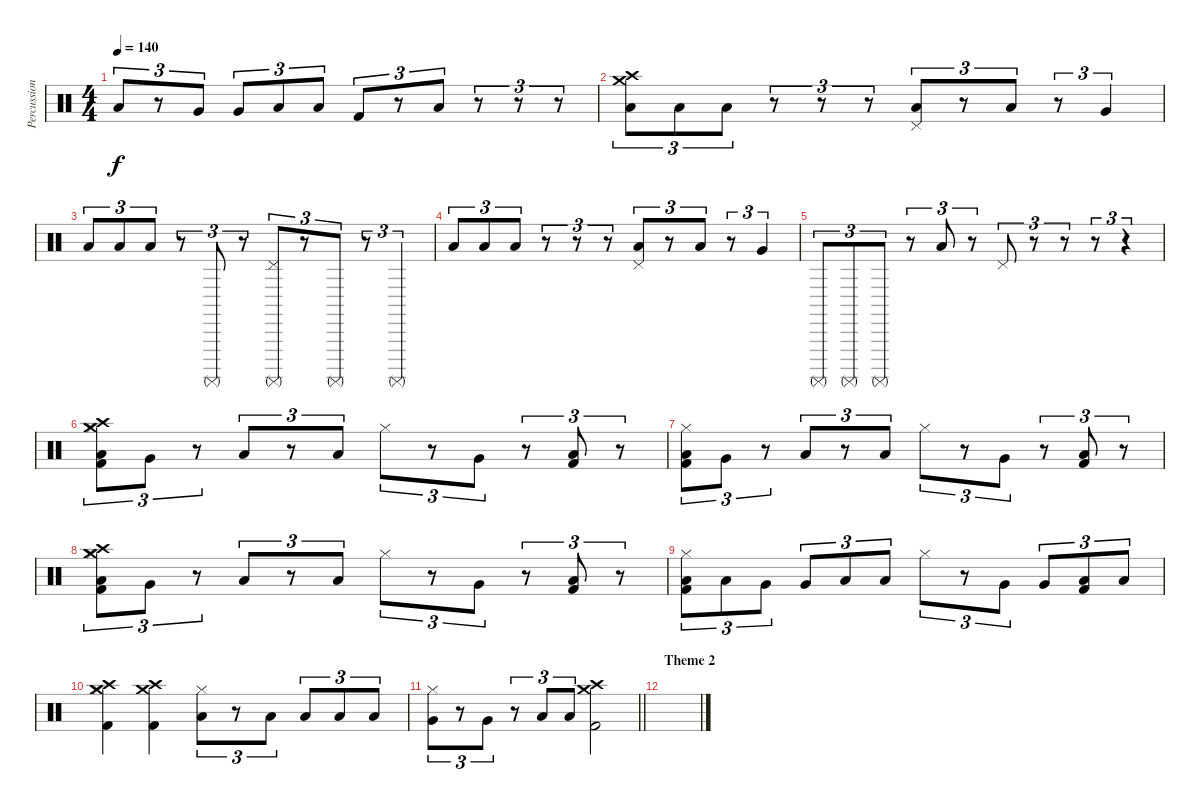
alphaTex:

\track ("Percussion" "Percussion") {instrument percussion}
\staff {score}
\articulation defaults
\ts (4 4)
\tempo 140
\clef neutral
\ks c "Low Floor Tom (hit)".8{tu (3 2) dy f}
r.8{tu (3 2)} "Very Low Tom (hit)".8{tu (3 2)} "Very Low Tom (hit)".8{tu (3 2)} "Low Floor Tom (hit)".8{tu (3 2)} "Low Floor Tom (hit)".8{tu (3 2)} "Kick (hit) 2".8{tu (3 2)} r.8{tu (3 2)} "Low Floor Tom (hit)".8{tu (3 2)} r.8{tu (3 2)} r.8{tu (3 2)} r.8{tu (3 2)} |
("Crash medium (hit)" "Crash high (hit)" "Low Tom (hit)").8{tu (3 2)} "Low Tom (hit)".8{tu (3 2)} "Low Tom (hit)".8{tu (3 2)} r.8{tu (3 2)} r.8{tu (3 2)} r.8{tu (3 2)} ("Pedal Hi-Hat (hit)" "Low Floor Tom (hit)").8{tu (3 2)} r.8{tu (3 2)} "Low Tom (hit)".8{tu (3 2)} r.8{tu (3 2)} "Very Low Tom (hit)".4{tu (3 2)} |
"Low Tom (hit)".8{tu (3 2)} "Low Tom (hit)".8{tu (3 2)} "Low Tom (hit)".8{tu (3 2)} r.8{tu (3 2)} "Surdo (mute)".8{tu (3 2)} r.8{tu (3 2)} ("Pedal Hi-Hat (hit)" "Surdo (mute)").8{tu (3 2)} r.8{tu (3 2)} "Surdo (mute)".8{tu (3 2)} r.8{tu (3 2)} "Surdo (mute)".4{tu (3 2)} |
"Low Tom (hit)".8{tu (3 2)} "Low Tom (hit)".8{tu (3 2)} "Low Tom (hit)".8{tu (3 2)} r.8{tu (3 2)} r.8{tu (3 2)} r.8{tu (3 2)} ("Pedal Hi-Hat (hit)" "Low Floor Tom (hit)").8{tu (3 2)} r.8{tu (3 2)} "Low Tom (hit)".8{tu (3 2)} r.8{tu (3 2)} "Very Low Tom (hit)".4{tu (3 2)} |
"Surdo (mute)".8{tu (3 2)} "Surdo (mute)".8{tu (3 2)} "Surdo (mute)".8{tu (3 2)} r.8{tu (3 2)} "Low Floor Tom (hit)".8{tu (3 2)} r.8{tu (3 2)} "Pedal Hi-Hat (hit)".8{tu (3 2)} r.8{tu (3 2)} r.8{tu (3 2)} r.8{tu (3 2)} r.4{tu (3 2)} |
("Hi-Hat (closed)" "Crash medium (hit)" "Crash high (hit)" "Low Tom (hit)" "Kick (hit) 2").8{tu (3 2)} "Very Low Tom (hit)".8{tu (3 2)} r.8{tu (3 2)} "Low Floor Tom (hit)".8{tu (3 2)} r.8{tu (3 2)} "Low Floor Tom (hit)".8{tu (3 2)} "Hi-Hat (closed)".8{tu (3 2)} r.8{tu (3 2)} "Very Low Tom (hit)".8{tu (3 2)} r.8{tu (3 2)} ("Low Floor Tom (hit)" "Kick (hit) 2").8{tu (3 2)} r.8{tu (3 2)} |
("Hi-Hat (closed)" "Low Tom (hit)" "Kick (hit) 2").8{tu (3 2)} "Very Low Tom (hit)".8{tu (3 2)} r.8{tu (3 2)} "Low Floor Tom (hit)".8{tu (3 2)} r.8{tu (3 2)} "Low Floor Tom (hit)".8{tu (3 2)} "Hi-Hat (closed)".8{tu (3 2)} r.8{tu (3 2)} "Very Low Tom (hit)".8{tu (3 2)} r.8{tu (3 2)} ("Low Floor Tom (hit)" "Kick (hit) 2").8{tu (3 2)} r.8{tu (3 2)} |
("Hi-Hat (closed)" "Crash medium (hit)" "Crash high (hit)" "Low Tom (hit)" "Kick (hit) 2").8{tu (3 2)} "Very Low Tom (hit)".8{tu (3 2)} r.8{tu (3 2)} "Low Floor Tom (hit)".8{tu (3 2)} r.8{tu (3 2)} "Low Floor Tom (hit)".8{tu (3 2)} "Hi-Hat (closed)".8{tu (3 2)} r.8{tu (3 2)} "Very Low Tom (hit)".8{tu (3 2)} r.8{tu (3 2)} ("Low Floor Tom (hit)" "Kick (hit) 2").8{tu (3 2)} r.8{tu (3 2)} |
("Hi-Hat (closed)" "Low Tom (hit)" "Kick (hit) 2").8{tu (3 2)} "Low Tom (hit)".8{tu (3 2)} "Very Low Tom (hit)".8{tu (3 2)} "Very Low Tom (hit)".8{tu (3 2)} "Low Floor Tom (hit)".8{tu (3 2)} "Low Floor Tom (hit)".8{tu (3 2)} "Hi-Hat (closed)".8{tu (3 2)} r.8{tu (3 2)} "Very Low Tom (hit)".8{tu (3 2)} "Very Low Tom (hit)".8{tu (3 2)} ("Low Floor Tom (hit)" "Kick (hit) 2").8{tu (3 2)} "Low Floor Tom (hit)".8{tu (3 2)} |
("Hi-Hat (closed)" "Crash medium (hit)" "Crash high (hit)" "Kick (hit) 2").4 ("Crash medium (hit)" "Crash high (hit)" "Kick (hit) 2").4 ("Hi-Hat (closed)" "Low Floor Tom (hit)").8{tu (3 2)} r.8{tu (3 2)} "Low Floor Tom (hit)".8{tu (3 2)} "Low Floor Tom (hit)".8{tu (3 2)} "Low Floor Tom (hit)".8{tu (3 2)} "Low Floor Tom (hit)".8{tu (3 2)} |
\barLineRight lightlight
("Hi-Hat (closed)" "Very Low Tom (hit)").8{tu (3 2)} r.8{tu (3 2)} "Very Low Tom (hit)".8{tu (3 2)} r.8{tu (3 2)} "Low Floor Tom (hit)".8{tu (3 2)} "Low Floor Tom (hit)".8{tu (3 2)} ("Crash medium (hit)" "Crash high (hit)" "Kick (hit) 2").2 |
\section ("" "Theme 2")
